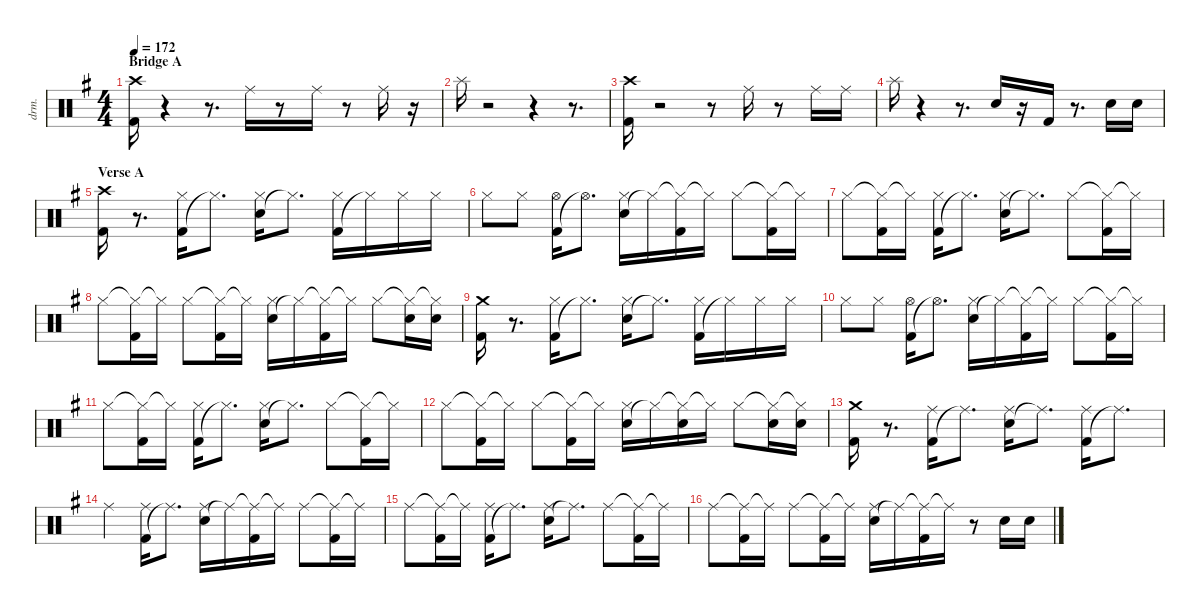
\defaultSystemsLayout 4
\hideDynamics
\bracketExtendMode nobrackets
\otherSystemsTrackNameOrientation horizontal
\track ("Shinya" "drm.") {instrument percussion}
\staff {score}
\articulation defaults
\ts (4 4)
\section ("" "Bridge A")
\tempo 172
\clef neutral
\ks eminor
("Kick (hit) 2"{acc forcenatural} "Crash high (hit)"{acc #}).16{dy fff} r.4 r.8{d} "Ride (middle)"{acc #}.16 r.8 "Ride (middle)"{acc #}.16 r.8 "Ride (middle)"{acc #}.16 r.16 |
"Splash (hit)"{acc forcenatural}.16 r.2 r.4 r.8{d} |
("Kick (hit) 2"{acc forcenatural} "Crash high (hit)"{acc #}).16 r.2 r.8 "Ride (middle)"{acc #}.16 r.8 "Ride (middle)"{acc #}.16 "Ride (middle)"{acc #}.16 |
"Splash (hit)"{acc forcenatural}.16 r.4 r.8{d} "Snare (hit) 2"{acc forcenatural}.16 r.16 "Kick (hit) 2"{acc forcenatural}.16 r.8{d} "Snare (hit) 2"{acc forcenatural}.16 "Snare (hit) 2"{acc forcenatural}.16 |
\section ("" "Verse A")
("Kick (hit) 2"{acc forcenatural} "Crash high (hit)"{acc #}).16 r.8{d} ("Kick (hit) 2"{acc forcenatural} "Hi-Hat (closed)"{acc #}).16 "Hi-Hat (closed)"{t acc #}.8{d} ("Snare (hit) 2"{acc forcenatural} "Hi-Hat (closed)"{acc #}).16 "Hi-Hat (closed)"{t acc #}.8{d} ("Kick (hit) 2"{acc forcenatural} "Hi-Hat (closed)"{acc #}).16 "Hi-Hat (closed)"{t acc #}.16 "Hi-Hat (closed)"{acc #}.16 "Hi-Hat (closed)"{acc #}.16 |
"Hi-Hat (closed)"{acc #}.8 "Hi-Hat (closed)"{acc #}.8 ("Kick (hit) 2"{acc forcenatural} "Hi-Hat (open)"{acc #}).16 "Hi-Hat (open)"{t acc #}.8{d} ("Snare (hit) 2"{acc forcenatural} "Hi-Hat (closed)"{acc #}).16 "Hi-Hat (closed)"{t acc #}.16 ("Hi-Hat (closed)"{t acc #} "Kick (hit) 2"{acc forcenatural}).16 "Hi-Hat (closed)"{t acc #}.16 "Hi-Hat (closed)"{acc #}.8 ("Hi-Hat (closed)"{t acc #} "Kick (hit) 2"{acc forcenatural}).16 "Hi-Hat (closed)"{t acc #}.16 |
"Hi-Hat (closed)"{acc #}.8 ("Hi-Hat (closed)"{t acc #} "Kick (hit) 2"{acc forcenatural}).16 "Hi-Hat (closed)"{t acc #}.16 ("Kick (hit) 2"{acc forcenatural} "Hi-Hat (closed)"{acc #}).16 "Hi-Hat (closed)"{t acc #}.8{d} ("Snare (hit) 2"{acc forcenatural} "Hi-Hat (closed)"{acc #}).16 "Hi-Hat (closed)"{t acc #}.8{d} "Hi-Hat (closed)"{acc #}.8 ("Hi-Hat (closed)"{t acc #} "Kick (hit) 2"{acc forcenatural}).16 "Hi-Hat (closed)"{t acc #}.16 |
"Hi-Hat (closed)"{acc #}.8 ("Hi-Hat (closed)"{t acc #} "Kick (hit) 2"{acc forcenatural}).16 "Hi-Hat (closed)"{t acc #}.16 "Hi-Hat (closed)"{acc #}.8 ("Hi-Hat (closed)"{t acc #} "Kick (hit) 2"{acc forcenatural}).16 "Hi-Hat (closed)"{t acc #}.16 ("Snare (hit) 2"{acc forcenatural} "Hi-Hat (closed)"{acc #}).16 "Hi-Hat (closed)"{t acc #}.16 ("Hi-Hat (closed)"{t acc #} "Kick (hit) 2"{acc forcenatural}).16 "Hi-Hat (closed)"{t acc #}.16 "Hi-Hat (closed)"{acc #}.8 ("Hi-Hat (closed)"{t acc #} "Snare (hit) 2"{acc forcenatural}).16 ("Hi-Hat (closed)"{t acc #} "Snare (hit) 2"{acc forcenatural}).16 |
("Kick (hit) 2"{acc forcenatural} "Crash medium (hit)"{acc forcenatural}).16 r.8{d} ("Kick (hit) 2"{acc forcenatural} "Hi-Hat (closed)"{acc #}).16 "Hi-Hat (closed)"{t acc #}.8{d} ("Snare (hit) 2"{acc forcenatural} "Hi-Hat (closed)"{acc #}).16 "Hi-Hat (closed)"{t acc #}.8{d} ("Kick (hit) 2"{acc forcenatural} "Hi-Hat (closed)"{acc #}).16 "Hi-Hat (closed)"{t acc #}.16 "Hi-Hat (closed)"{acc #}.16 "Hi-Hat (closed)"{acc #}.16 |
"Hi-Hat (closed)"{acc #}.8 "Hi-Hat (closed)"{acc #}.8 ("Kick (hit) 2"{acc forcenatural} "Hi-Hat (open)"{acc #}).16 "Hi-Hat (open)"{t acc #}.8{d} ("Snare (hit) 2"{acc forcenatural} "Hi-Hat (closed)"{acc #}).16 "Hi-Hat (closed)"{t acc #}.16 ("Hi-Hat (closed)"{t acc #} "Kick (hit) 2"{acc forcenatural}).16 "Hi-Hat (closed)"{t acc #}.16 "Hi-Hat (closed)"{acc #}.8 ("Hi-Hat (closed)"{t acc #} "Kick (hit) 2"{acc forcenatural}).16 "Hi-Hat (closed)"{t acc #}.16 |
"Hi-Hat (closed)"{acc #}.8 ("Hi-Hat (closed)"{t acc #} "Kick (hit) 2"{acc forcenatural}).16 "Hi-Hat (closed)"{t acc #}.16 ("Kick (hit) 2"{acc forcenatural} "Hi-Hat (closed)"{acc #}).16 "Hi-Hat (closed)"{t acc #}.8{d} ("Snare (hit) 2"{acc forcenatural} "Hi-Hat (closed)"{acc #}).16 "Hi-Hat (closed)"{t acc #}.8{d} "Hi-Hat (closed)"{acc #}.8 ("Hi-Hat (closed)"{t acc #} "Kick (hit) 2"{acc forcenatural}).16 "Hi-Hat (closed)"{t acc #}.16 |
"Hi-Hat (closed)"{acc #}.8 ("Hi-Hat (closed)"{t acc #} "Kick (hit) 2"{acc forcenatural}).16 "Hi-Hat (closed)"{t acc #}.16 "Hi-Hat (closed)"{acc #}.8 ("Hi-Hat (closed)"{t acc #} "Kick (hit) 2"{acc forcenatural}).16 "Hi-Hat (closed)"{t acc #}.16 ("Snare (hit) 2"{acc forcenatural} "Hi-Hat (closed)"{acc #}).16 "Hi-Hat (closed)"{t acc #}.16 ("Hi-Hat (closed)"{t acc #} "Snare (hit) 2"{acc forcenatural}).16 "Hi-Hat (closed)"{t acc #}.16 "Hi-Hat (closed)"{acc #}.8 ("Hi-Hat (closed)"{t acc #} "Snare (hit) 2"{acc forcenatural}).16 ("Hi-Hat (closed)"{t acc #} "Snare (hit) 2"{acc forcenatural}).16 |
("Kick (hit) 2"{acc forcenatural} "Crash medium (hit)"{acc forcenatural}).16 r.8{d} ("Kick (hit) 2"{acc forcenatural} "Ride (middle)"{acc #}).16 "Ride (middle)"{t acc #}.8{d} ("Snare (hit) 2"{acc forcenatural} "Ride (middle)"{acc #}).16 "Ride (middle)"{t acc #}.8{d} ("Kick (hit) 2"{acc forcenatural} "Ride (middle)"{acc #}).16 "Ride (middle)"{t acc #}.8{d} |
"Ride (middle)"{acc #}.4 ("Kick (hit) 2"{acc forcenatural} "Ride (middle)"{acc #}).16 "Ride (middle)"{t acc #}.8{d} ("Snare (hit) 2"{acc forcenatural} "Ride (middle)"{acc #}).16 "Ride (middle)"{t acc #}.16 ("Ride (middle)"{t acc #} "Kick (hit) 2"{acc forcenatural}).16 "Ride (middle)"{t acc #}.16 "Ride (middle)"{acc #}.8 ("Ride (middle)"{t acc #} "Kick (hit) 2"{acc forcenatural}).16 "Ride (middle)"{t acc #}.16 |
"Ride (middle)"{acc #}.8 ("Ride (middle)"{t acc #} "Kick (hit) 2"{acc forcenatural}).16 "Ride (middle)"{t acc #}.16 ("Kick (hit) 2"{acc forcenatural} "Ride (middle)"{acc #}).16 "Ride (middle)"{t acc #}.8{d} ("Snare (hit) 2"{acc forcenatural} "Ride (middle)"{acc #}).16 "Ride (middle)"{t acc #}.8{d} "Ride (middle)"{acc #}.8 ("Ride (middle)"{t acc #} "Kick (hit) 2"{acc forcenatural}).16 "Ride (middle)"{t acc #}.16 |
"Ride (middle)"{acc #}.8 ("Ride (middle)"{t acc #} "Kick (hit) 2"{acc forcenatural}).16 "Ride (middle)"{t acc #}.16 "Ride (middle)"{acc #}.8 ("Ride (middle)"{t acc #} "Kick (hit) 2"{acc forcenatural}).16 "Ride (middle)"{t acc #}.16 ("Snare (hit) 2"{acc forcenatural} "Ride (middle)"{acc #}).16 "Ride (middle)"{t acc #}.16 ("Ride (middle)"{t acc #} "Kick (hit) 2"{acc forcenatural}).16 "Ride (middle)"{t acc #}.16 r.8 "Snare (hit) 2"{acc forcenatural}.16 "Snare (hit) 2"{acc forcenatural}.16
